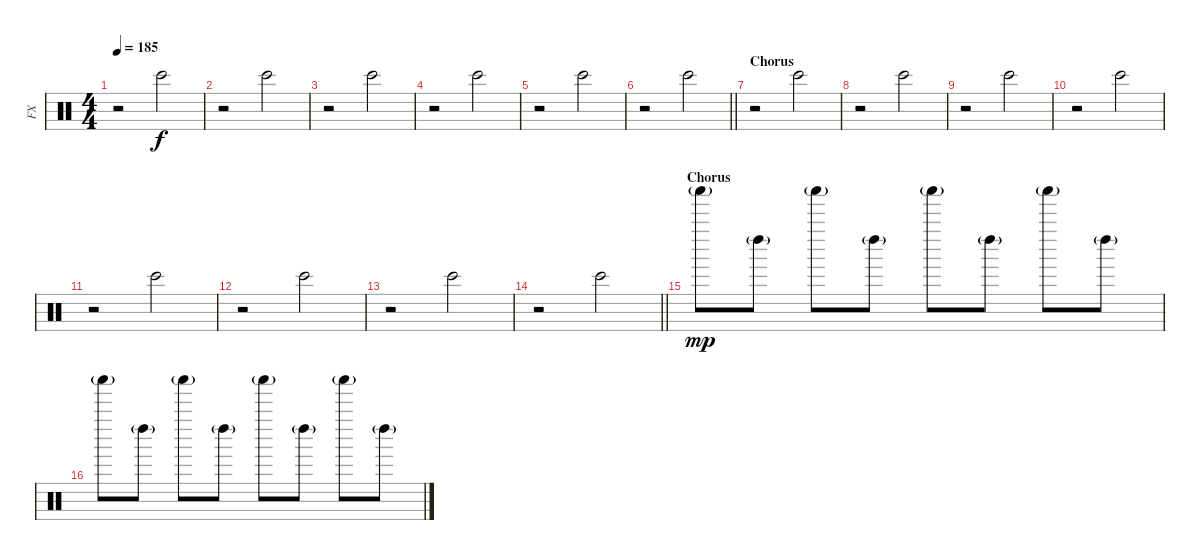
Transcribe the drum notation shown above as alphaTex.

\track ("FX" "FX") {instrument percussion}
\staff {score}
\articulation defaults
\ts (4 4)
\tempo 185
\clef neutral
\ks c
r.2{dy f} "Bongo High (hit)".2 |
r.2 "Bongo High (hit)".2 |
r.2 "Bongo High (hit)".2 |
r.2 "Bongo High (hit)".2 |
r.2 "Bongo High (hit)".2 |
\barLineRight lightlight
r.2 "Bongo High (hit)".2 |
\section ("" "Chorus")
r.2 "Bongo High (hit)".2 |
r.2 "Bongo High (hit)".2 |
r.2 "Bongo High (hit)".2 |
r.2 "Bongo High (hit)".2 |
r.2 "Bongo High (hit)".2 |
r.2 "Bongo High (hit)".2 |
r.2 "Bongo High (hit)".2 |
\barLineRight lightlight
r.2 "Bongo High (hit)".2 |
\section ("" "Chorus")
"Shaker (hit)"{g}.8{dy mp} "Left Maraca (hit)"{g}.8 "Shaker (hit)"{g}.8 "Left Maraca (hit)"{g}.8 "Shaker (hit)"{g}.8 "Left Maraca (hit)"{g}.8 "Shaker (hit)"{g}.8 "Left Maraca (hit)"{g}.8 |
"Shaker (hit)"{g}.8 "Left Maraca (hit)"{g}.8 "Shaker (hit)"{g}.8 "Left Maraca (hit)"{g}.8 "Shaker (hit)"{g}.8 "Left Maraca (hit)"{g}.8 "Shaker (hit)"{g}.8 "Left Maraca (hit)"{g}.8
